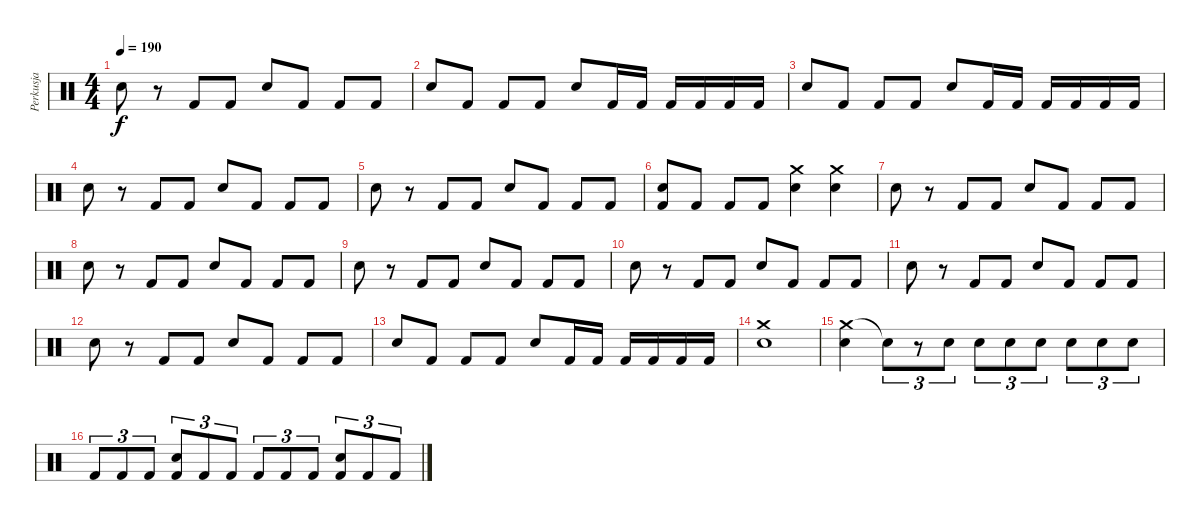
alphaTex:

\track ("Perkusja" "Perkusja") {instrument percussion}
\staff {score}
\articulation defaults
\ts (4 4)
\tempo 190
\clef neutral
\ks c "Electric Snare (hit)".8{dy f}
r.8 "Kick (hit) 2".8 "Kick (hit) 2".8 "Electric Snare (hit)".8 "Kick (hit) 2".8 "Kick (hit) 2".8 "Kick (hit) 2".8 |
"Electric Snare (hit)".8 "Kick (hit) 2".8 "Kick (hit) 2".8 "Kick (hit) 2".8 "Electric Snare (hit)".8 "Kick (hit) 2".16 "Kick (hit) 2".16 "Kick (hit) 2".16 "Kick (hit) 2".16 "Kick (hit) 2".16 "Kick (hit) 2".16 |
"Electric Snare (hit)".8 "Kick (hit) 2".8 "Kick (hit) 2".8 "Kick (hit) 2".8 "Electric Snare (hit)".8 "Kick (hit) 2".16 "Kick (hit) 2".16 "Kick (hit) 2".16 "Kick (hit) 2".16 "Kick (hit) 2".16 "Kick (hit) 2".16 |
"Electric Snare (hit)".8 r.8 "Kick (hit) 2".8 "Kick (hit) 2".8 "Electric Snare (hit)".8 "Kick (hit) 2".8 "Kick (hit) 2".8 "Kick (hit) 2".8 |
"Electric Snare (hit)".8 r.8 "Kick (hit) 2".8 "Kick (hit) 2".8 "Electric Snare (hit)".8 "Kick (hit) 2".8 "Kick (hit) 2".8 "Kick (hit) 2".8 |
("Electric Snare (hit)" "Kick (hit) 2").8 "Kick (hit) 2".8 "Kick (hit) 2".8 "Kick (hit) 2".8 ("Crash medium (hit)" "Electric Snare (hit)").4 ("Crash medium (hit)" "Electric Snare (hit)").4 |
"Electric Snare (hit)".8 r.8 "Kick (hit) 2".8 "Kick (hit) 2".8 "Electric Snare (hit)".8 "Kick (hit) 2".8 "Kick (hit) 2".8 "Kick (hit) 2".8 |
"Electric Snare (hit)".8 r.8 "Kick (hit) 2".8 "Kick (hit) 2".8 "Electric Snare (hit)".8 "Kick (hit) 2".8 "Kick (hit) 2".8 "Kick (hit) 2".8 |
"Electric Snare (hit)".8 r.8 "Kick (hit) 2".8 "Kick (hit) 2".8 "Electric Snare (hit)".8 "Kick (hit) 2".8 "Kick (hit) 2".8 "Kick (hit) 2".8 |
"Electric Snare (hit)".8 r.8 "Kick (hit) 2".8 "Kick (hit) 2".8 "Electric Snare (hit)".8 "Kick (hit) 2".8 "Kick (hit) 2".8 "Kick (hit) 2".8 |
"Electric Snare (hit)".8 r.8 "Kick (hit) 2".8 "Kick (hit) 2".8 "Electric Snare (hit)".8 "Kick (hit) 2".8 "Kick (hit) 2".8 "Kick (hit) 2".8 |
"Electric Snare (hit)".8 r.8 "Kick (hit) 2".8 "Kick (hit) 2".8 "Electric Snare (hit)".8 "Kick (hit) 2".8 "Kick (hit) 2".8 "Kick (hit) 2".8 |
"Electric Snare (hit)".8 "Kick (hit) 2".8 "Kick (hit) 2".8 "Kick (hit) 2".8 "Electric Snare (hit)".8 "Kick (hit) 2".16 "Kick (hit) 2".16 "Kick (hit) 2".16 "Kick (hit) 2".16 "Kick (hit) 2".16 "Kick (hit) 2".16 |
("Crash medium (hit)" "Electric Snare (hit)").1 |
("Crash medium (hit)" "Electric Snare (hit)").4 "Snare (hit)"{t}.8{tu (3 2)} r.8{tu (3 2)} "Electric Snare (hit)".8{tu (3 2) balance 16} "Electric Snare (hit)".8{tu (3 2) balance 12} "Electric Snare (hit)".8{tu (3 2) balance 6} "Electric Snare (hit)".8{tu (3 2) balance 8} "Electric Snare (hit)".8{tu (3 2) balance 6} "Electric Snare (hit)".8{tu (3 2) balance 4} "Electric Snare (hit)".8{tu (3 2) balance 0} |
"Kick (hit) 2".8{tu (3 2) balance 8} "Kick (hit) 2".8{tu (3 2)} "Kick (hit) 2".8{tu (3 2)} ("Electric Snare (hit)" "Kick (hit) 2").8{tu (3 2)} "Kick (hit) 2".8{tu (3 2)} "Kick (hit) 2".8{tu (3 2)} "Kick (hit) 2".8{tu (3 2)} "Kick (hit) 2".8{tu (3 2)} "Kick (hit) 2".8{tu (3 2)} ("Electric Snare (hit)" "Kick (hit) 2").8{tu (3 2)} "Kick (hit) 2".8{tu (3 2)} "Kick (hit) 2".8{tu (3 2)}
